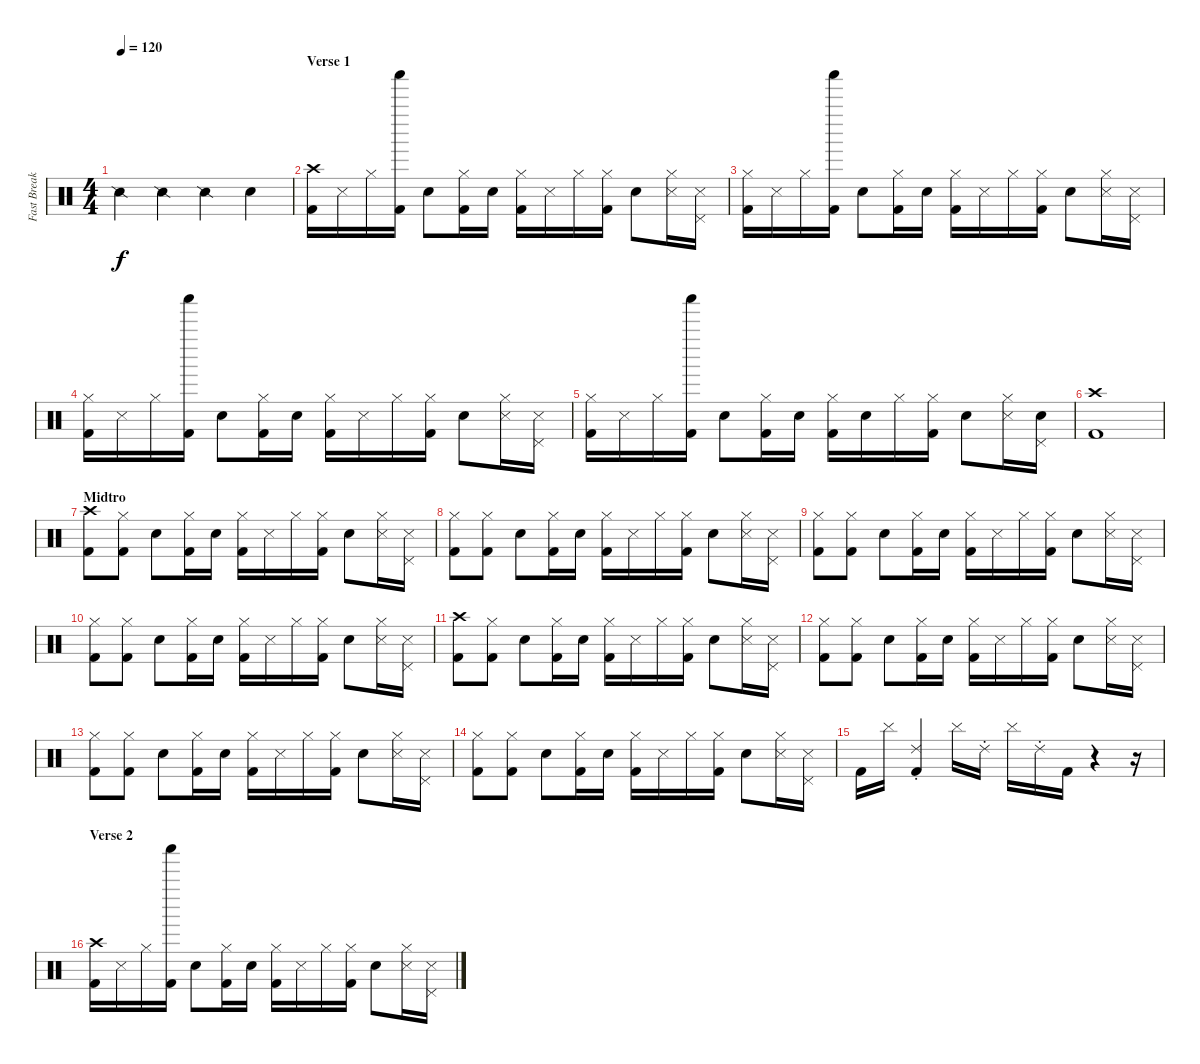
\track ("Fast Break Drums" "Fast Break") {instrument percussion}
\staff {score}
\articulation defaults
\ts (4 4)
\tempo 120
\clef neutral
\ks c "Snare (side stick) 2".4{dy f} "Snare (side stick) 2".4 "Snare (side stick) 2".4 "Snare (hit) 2".4
|
\section ("" "Verse 1")
("Kick (hit) 2" "Crash high (hit)").16 "Snare (side stick) 3".16 "Hi-Hat (closed)".16 ("Kick (hit) 2" "Shaker (hit)").16 "Snare (hit) 2".8 ("Kick (hit) 2" "Hi-Hat (closed)").16 "Snare (hit) 2".16 ("Kick (hit) 2" "Hi-Hat (closed)").16 "Snare (side stick) 3".16 "Hi-Hat (closed)".16 ("Kick (hit) 2" "Hi-Hat (closed)").16 "Snare (hit) 2".8 ("Snare (side stick) 3" "Hi-Hat (closed)").16 ("Snare (side stick) 3" "Pedal Hi-Hat (hit)").16 |
("Kick (hit) 2" "Hi-Hat (closed)").16 "Snare (side stick) 3".16 "Hi-Hat (closed)".16 ("Kick (hit) 2" "Shaker (hit)").16 "Snare (hit) 2".8 ("Kick (hit) 2" "Hi-Hat (closed)").16 "Snare (hit) 2".16 ("Kick (hit) 2" "Hi-Hat (closed)").16 "Snare (side stick) 3".16 "Hi-Hat (closed)".16 ("Kick (hit) 2" "Hi-Hat (closed)").16 "Snare (hit) 2".8 ("Snare (side stick) 3" "Hi-Hat (closed)").16 ("Snare (side stick) 3" "Pedal Hi-Hat (hit)").16 |
("Kick (hit) 2" "Hi-Hat (closed)").16 "Snare (side stick) 3".16 "Hi-Hat (closed)".16 ("Kick (hit) 2" "Shaker (hit)").16 "Snare (hit) 2".8 ("Kick (hit) 2" "Hi-Hat (closed)").16 "Snare (hit) 2".16 ("Kick (hit) 2" "Hi-Hat (closed)").16 "Snare (side stick) 3".16 "Hi-Hat (closed)".16 ("Kick (hit) 2" "Hi-Hat (closed)").16 "Snare (hit) 2".8 ("Snare (side stick) 3" "Hi-Hat (closed)").16 ("Snare (side stick) 3" "Pedal Hi-Hat (hit)").16 |
("Kick (hit) 2" "Hi-Hat (closed)").16 "Snare (side stick) 3".16 "Hi-Hat (closed)".16 ("Kick (hit) 2" "Shaker (hit)").16 "Snare (hit) 2".8 ("Kick (hit) 2" "Hi-Hat (closed)").16 "Snare (hit) 2".16 ("Kick (hit) 2" "Hi-Hat (closed)").16 "Snare (hit) 2".16 "Hi-Hat (closed)".16 ("Kick (hit) 2" "Hi-Hat (closed)").16 "Snare (hit) 2".8 ("Snare (side stick) 3" "Hi-Hat (closed)").16 ("Snare (hit) 2" "Pedal Hi-Hat (hit)").16 |
("Kick (hit) 2" "Crash high (hit)").1 |
\section ("" "Midtro")
("Kick (hit) 2" "Crash high (hit)").8 ("Kick (hit) 2" "Hi-Hat (closed)").8 "Snare (hit) 2".8 ("Kick (hit) 2" "Hi-Hat (closed)").16 "Snare (hit) 2".16 ("Kick (hit) 2" "Hi-Hat (closed)").16 "Snare (side stick) 3".16 "Hi-Hat (closed)".16 ("Kick (hit) 2" "Hi-Hat (closed)").16 "Snare (hit) 2".8 ("Snare (side stick) 3" "Hi-Hat (closed)").16 ("Snare (side stick) 3" "Pedal Hi-Hat (hit)").16 |
("Kick (hit) 2" "Hi-Hat (closed)").8 ("Kick (hit) 2" "Hi-Hat (closed)").8 "Snare (hit) 2".8 ("Kick (hit) 2" "Hi-Hat (closed)").16 "Snare (hit) 2".16 ("Kick (hit) 2" "Hi-Hat (closed)").16 "Snare (side stick) 3".16 "Hi-Hat (closed)".16 ("Kick (hit) 2" "Hi-Hat (closed)").16 "Snare (hit) 2".8 ("Snare (side stick) 3" "Hi-Hat (closed)").16 ("Snare (side stick) 3" "Pedal Hi-Hat (hit)").16 |
("Kick (hit) 2" "Hi-Hat (closed)").8 ("Kick (hit) 2" "Hi-Hat (closed)").8 "Snare (hit) 2".8 ("Kick (hit) 2" "Hi-Hat (closed)").16 "Snare (hit) 2".16 ("Kick (hit) 2" "Hi-Hat (closed)").16 "Snare (side stick) 3".16 "Hi-Hat (closed)".16 ("Kick (hit) 2" "Hi-Hat (closed)").16 "Snare (hit) 2".8 ("Snare (side stick) 3" "Hi-Hat (closed)").16 ("Snare (side stick) 3" "Pedal Hi-Hat (hit)").16 |
("Kick (hit) 2" "Hi-Hat (closed)").8 ("Kick (hit) 2" "Hi-Hat (closed)").8 "Snare (hit) 2".8 ("Kick (hit) 2" "Hi-Hat (closed)").16 "Snare (hit) 2".16 ("Kick (hit) 2" "Hi-Hat (closed)").16 "Snare (side stick) 3".16 "Hi-Hat (closed)".16 ("Kick (hit) 2" "Hi-Hat (closed)").16 "Snare (hit) 2".8 ("Snare (side stick) 3" "Hi-Hat (closed)").16 ("Snare (side stick) 3" "Pedal Hi-Hat (hit)").16 |
("Kick (hit) 2" "Crash high (hit)").8 ("Kick (hit) 2" "Hi-Hat (closed)").8 "Snare (hit) 2".8 ("Kick (hit) 2" "Hi-Hat (closed)").16 "Snare (hit) 2".16 ("Kick (hit) 2" "Hi-Hat (closed)").16 "Snare (side stick) 3".16 "Hi-Hat (closed)".16 ("Kick (hit) 2" "Hi-Hat (closed)").16 "Snare (hit) 2".8 ("Snare (side stick) 3" "Hi-Hat (closed)").16 ("Snare (side stick) 3" "Pedal Hi-Hat (hit)").16 |
("Kick (hit) 2" "Hi-Hat (closed)").8 ("Kick (hit) 2" "Hi-Hat (closed)").8 "Snare (hit) 2".8 ("Kick (hit) 2" "Hi-Hat (closed)").16 "Snare (hit) 2".16 ("Kick (hit) 2" "Hi-Hat (closed)").16 "Snare (side stick) 3".16 "Hi-Hat (closed)".16 ("Kick (hit) 2" "Hi-Hat (closed)").16 "Snare (hit) 2".8 ("Snare (side stick) 3" "Hi-Hat (closed)").16 ("Snare (side stick) 3" "Pedal Hi-Hat (hit)").16 |
("Kick (hit) 2" "Hi-Hat (closed)").8 ("Kick (hit) 2" "Hi-Hat (closed)").8 "Snare (hit) 2".8 ("Kick (hit) 2" "Hi-Hat (closed)").16 "Snare (hit) 2".16 ("Kick (hit) 2" "Hi-Hat (closed)").16 "Snare (side stick) 3".16 "Hi-Hat (closed)".16 ("Kick (hit) 2" "Hi-Hat (closed)").16 "Snare (hit) 2".8 ("Snare (side stick) 3" "Hi-Hat (closed)").16 ("Snare (side stick) 3" "Pedal Hi-Hat (hit)").16 |
("Kick (hit) 2" "Hi-Hat (closed)").8 ("Kick (hit) 2" "Hi-Hat (closed)").8 "Snare (hit) 2".8 ("Kick (hit) 2" "Hi-Hat (closed)").16 "Snare (hit) 2".16 ("Kick (hit) 2" "Hi-Hat (closed)").16 "Snare (side stick) 3".16 "Hi-Hat (closed)".16 ("Kick (hit) 2" "Hi-Hat (closed)").16 "Snare (hit) 2".8 ("Snare (side stick) 3" "Hi-Hat (closed)").16 ("Snare (side stick) 3" "Pedal Hi-Hat (hit)").16 |
"Kick (hit) 2".16 "Cymbal (hit)".16 ("Kick (hit) 2" "Ride (choke) 2").4 "Cymbal (hit)".16 "Ride (choke) 2".16 "Cymbal (hit)".16 "Ride (choke) 2".16 "Kick (hit) 2".16 r.4 r.16 |
\section ("" "Verse 2")
("Kick (hit) 2" "Crash high (hit)").16 "Snare (side stick) 3".16 "Hi-Hat (closed)".16 ("Kick (hit) 2" "Shaker (hit)").16 "Snare (hit) 2".8 ("Kick (hit) 2" "Hi-Hat (closed)").16 "Snare (hit) 2".16 ("Kick (hit) 2" "Hi-Hat (closed)").16 "Snare (side stick) 3".16 "Hi-Hat (closed)".16 ("Kick (hit) 2" "Hi-Hat (closed)").16 "Snare (hit) 2".8 ("Snare (side stick) 3" "Hi-Hat (closed)").16 ("Snare (side stick) 3" "Pedal Hi-Hat (hit)").16
